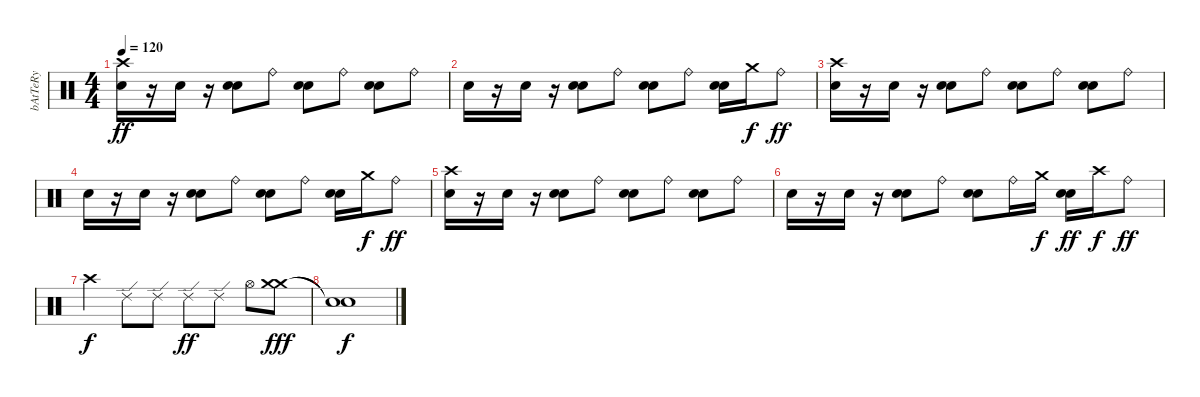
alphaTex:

\track ("bAtTeRy" "bAtTeRy") {instrument percussion}
\staff {score}
\articulation defaults
\ts (4 4)
\tempo 120
\clef neutral
\ks c
("Crash high (hit)" "Electric Snare (hit)").16{dy ff} r.16 "Electric Snare (hit)".16 r.16 ("Electric Snare (hit)" "Electric Snare (hit)").8{bd 480} "Ride (bell)".8 ("Electric Snare (hit)" "Electric Snare (hit)").8{bd 480} "Ride (bell)".8 ("Electric Snare (hit)" "Electric Snare (hit)").8{bd 480} "Ride (bell)".8 |
"Electric Snare (hit)".16 r.16 "Electric Snare (hit)".16 r.16 ("Electric Snare (hit)" "Electric Snare (hit)").8{bd 480} "Ride (bell)".8 ("Electric Snare (hit)" "Electric Snare (hit)").8{bd 480} "Ride (bell)".8 ("Electric Snare (hit)" "Electric Snare (hit)").16{bd 480} "Crash medium (hit)".16{dy f} "Ride (bell)".8{dy ff} |
("Crash high (hit)" "Electric Snare (hit)").16 r.16 "Electric Snare (hit)".16 r.16 ("Electric Snare (hit)" "Electric Snare (hit)").8{bd 480} "Ride (bell)".8 ("Electric Snare (hit)" "Electric Snare (hit)").8{bd 480} "Ride (bell)".8 ("Electric Snare (hit)" "Electric Snare (hit)").8{bd 480} "Ride (bell)".8 |
"Electric Snare (hit)".16 r.16 "Electric Snare (hit)".16 r.16 ("Electric Snare (hit)" "Electric Snare (hit)").8{bd 480} "Ride (bell)".8 ("Electric Snare (hit)" "Electric Snare (hit)").8{bd 480} "Ride (bell)".8 ("Electric Snare (hit)" "Electric Snare (hit)").16{bd 480} "Crash medium (hit)".16{dy f} "Ride (bell)".8{dy ff} |
("Crash high (hit)" "Electric Snare (hit)").16 r.16 "Electric Snare (hit)".16 r.16 ("Electric Snare (hit)" "Electric Snare (hit)").8{bd 480} "Ride (bell)".8 ("Electric Snare (hit)" "Electric Snare (hit)").8{bd 480} "Ride (bell)".8 ("Electric Snare (hit)" "Electric Snare (hit)").8{bd 480} "Ride (bell)".8 |
"Electric Snare (hit)".16 r.16 "Electric Snare (hit)".16 r.16 ("Electric Snare (hit)" "Electric Snare (hit)").8{bd 480} "Ride (bell)".8 ("Electric Snare (hit)" "Electric Snare (hit)").8{bd 480} "Ride (bell)".16 "Crash medium (hit)".16{dy f} ("Electric Snare (hit)" "Electric Snare (hit)").16{bd 480 dy ff} "Crash high (hit)".16{dy f} "Ride (bell)".8{dy ff} |
"Crash high (hit)".4{dy f} "Ride (edge) 2".8 "Ride (edge) 2".8 "Ride (edge) 2".8{dy ff} "Ride (edge) 2".8 "Hi-Hat (open)".8 ("Crash medium (hit)" "Crash medium (hit)").8{dy fff} |
("Snare (hit)"{t} "Snare (hit)"{t}).1{dy f}
